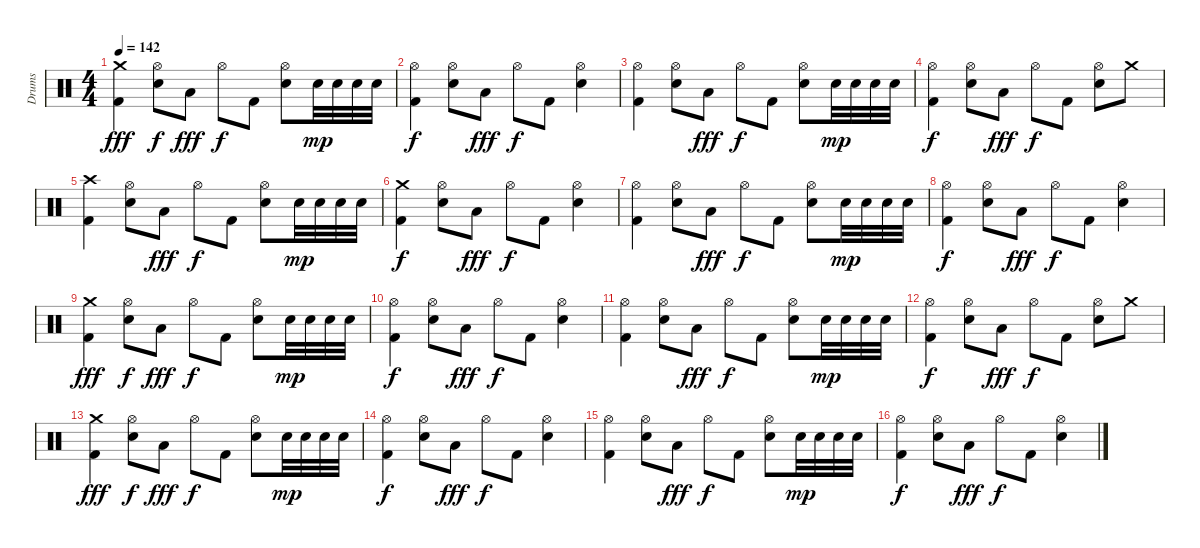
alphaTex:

\track ("Drums" "Drums") {instrument percussion}
\staff {score}
\articulation defaults
\ts (4 4)
\tempo 142
\clef neutral
\ks c
("Crash medium (hit)" "Kick (hit) 2").4{dy fff volume 11} ("Hi-Hat (open)" "Snare (hit) 2").8{dy f} "Low Tom (hit)".8{dy fff} "Hi-Hat (open)".8{dy f} "Kick (hit) 2".8 ("Hi-Hat (open)" "Snare (hit) 2").8 "Snare (hit) 2".32{dy mp} "Snare (hit) 2".32 "Snare (hit) 2".32 "Snare (hit) 2".32 |
("Hi-Hat (open)" "Kick (hit) 2").4{dy f volume 11} ("Hi-Hat (open)" "Snare (hit) 2").8 "Low Tom (hit)".8{dy fff} "Hi-Hat (open)".8{dy f} "Kick (hit) 2".8 ("Hi-Hat (open)" "Snare (hit) 2").4 |
("Hi-Hat (open)" "Kick (hit) 2").4{volume 11} ("Hi-Hat (open)" "Snare (hit) 2").8 "Low Tom (hit)".8{dy fff} "Hi-Hat (open)".8{dy f} "Kick (hit) 2".8 ("Hi-Hat (open)" "Snare (hit) 2").8 "Snare (hit) 2".32{dy mp} "Snare (hit) 2".32 "Snare (hit) 2".32 "Snare (hit) 2".32 |
("Hi-Hat (open)" "Kick (hit) 2").4{dy f volume 11} ("Hi-Hat (open)" "Snare (hit) 2").8 "Low Tom (hit)".8{dy fff} "Hi-Hat (open)".8{dy f} "Kick (hit) 2".8 ("Hi-Hat (open)" "Snare (hit) 2").8 "Crash medium (hit)".8 |
("Crash high (hit)" "Kick (hit) 2").4{volume 11} ("Hi-Hat (open)" "Snare (hit) 2").8 "Low Tom (hit)".8{dy fff} "Hi-Hat (open)".8{dy f} "Kick (hit) 2".8 ("Hi-Hat (open)" "Snare (hit) 2").8 "Snare (hit) 2".32{dy mp} "Snare (hit) 2".32 "Snare (hit) 2".32 "Snare (hit) 2".32 |
("Crash medium (hit)" "Kick (hit) 2").4{dy f volume 11} ("Hi-Hat (open)" "Snare (hit) 2").8 "Low Tom (hit)".8{dy fff} "Hi-Hat (open)".8{dy f} "Kick (hit) 2".8 ("Hi-Hat (open)" "Snare (hit) 2").4 |
("Hi-Hat (open)" "Kick (hit) 2").4{volume 11} ("Hi-Hat (open)" "Snare (hit) 2").8 "Low Tom (hit)".8{dy fff} "Hi-Hat (open)".8{dy f} "Kick (hit) 2".8 ("Hi-Hat (open)" "Snare (hit) 2").8 "Snare (hit) 2".32{dy mp} "Snare (hit) 2".32 "Snare (hit) 2".32 "Snare (hit) 2".32 |
("Hi-Hat (open)" "Kick (hit) 2").4{dy f volume 11} ("Hi-Hat (open)" "Snare (hit) 2").8 "Low Tom (hit)".8{dy fff} "Hi-Hat (open)".8{dy f} "Kick (hit) 2".8 ("Hi-Hat (open)" "Snare (hit) 2").4 |
("Crash medium (hit)" "Kick (hit) 2").4{dy fff volume 11} ("Hi-Hat (open)" "Snare (hit) 2").8{dy f} "Low Tom (hit)".8{dy fff} "Hi-Hat (open)".8{dy f} "Kick (hit) 2".8 ("Hi-Hat (open)" "Snare (hit) 2").8 "Snare (hit) 2".32{dy mp} "Snare (hit) 2".32 "Snare (hit) 2".32 "Snare (hit) 2".32 |
("Hi-Hat (open)" "Kick (hit) 2").4{dy f volume 11} ("Hi-Hat (open)" "Snare (hit) 2").8 "Low Tom (hit)".8{dy fff} "Hi-Hat (open)".8{dy f} "Kick (hit) 2".8 ("Hi-Hat (open)" "Snare (hit) 2").4 |
("Hi-Hat (open)" "Kick (hit) 2").4{volume 11} ("Hi-Hat (open)" "Snare (hit) 2").8 "Low Tom (hit)".8{dy fff} "Hi-Hat (open)".8{dy f} "Kick (hit) 2".8 ("Hi-Hat (open)" "Snare (hit) 2").8 "Snare (hit) 2".32{dy mp} "Snare (hit) 2".32 "Snare (hit) 2".32 "Snare (hit) 2".32 |
("Hi-Hat (open)" "Kick (hit) 2").4{dy f volume 11} ("Hi-Hat (open)" "Snare (hit) 2").8 "Low Tom (hit)".8{dy fff} "Hi-Hat (open)".8{dy f} "Kick (hit) 2".8 ("Hi-Hat (open)" "Snare (hit) 2").8 "Crash medium (hit)".8 |
("Crash medium (hit)" "Kick (hit) 2").4{dy fff volume 11} ("Hi-Hat (open)" "Snare (hit) 2").8{dy f} "Low Tom (hit)".8{dy fff} "Hi-Hat (open)".8{dy f} "Kick (hit) 2".8 ("Hi-Hat (open)" "Snare (hit) 2").8 "Snare (hit) 2".32{dy mp} "Snare (hit) 2".32 "Snare (hit) 2".32 "Snare (hit) 2".32 |
("Hi-Hat (open)" "Kick (hit) 2").4{dy f volume 11} ("Hi-Hat (open)" "Snare (hit) 2").8 "Low Tom (hit)".8{dy fff} "Hi-Hat (open)".8{dy f} "Kick (hit) 2".8 ("Hi-Hat (open)" "Snare (hit) 2").4 |
("Hi-Hat (open)" "Kick (hit) 2").4{volume 11} ("Hi-Hat (open)" "Snare (hit) 2").8 "Low Tom (hit)".8{dy fff} "Hi-Hat (open)".8{dy f} "Kick (hit) 2".8 ("Hi-Hat (open)" "Snare (hit) 2").8 "Snare (hit) 2".32{dy mp} "Snare (hit) 2".32 "Snare (hit) 2".32 "Snare (hit) 2".32 |
("Hi-Hat (open)" "Kick (hit) 2").4{dy f volume 11} ("Hi-Hat (open)" "Snare (hit) 2").8 "Low Tom (hit)".8{dy fff} "Hi-Hat (open)".8{dy f} "Kick (hit) 2".8 ("Hi-Hat (open)" "Snare (hit) 2").4
